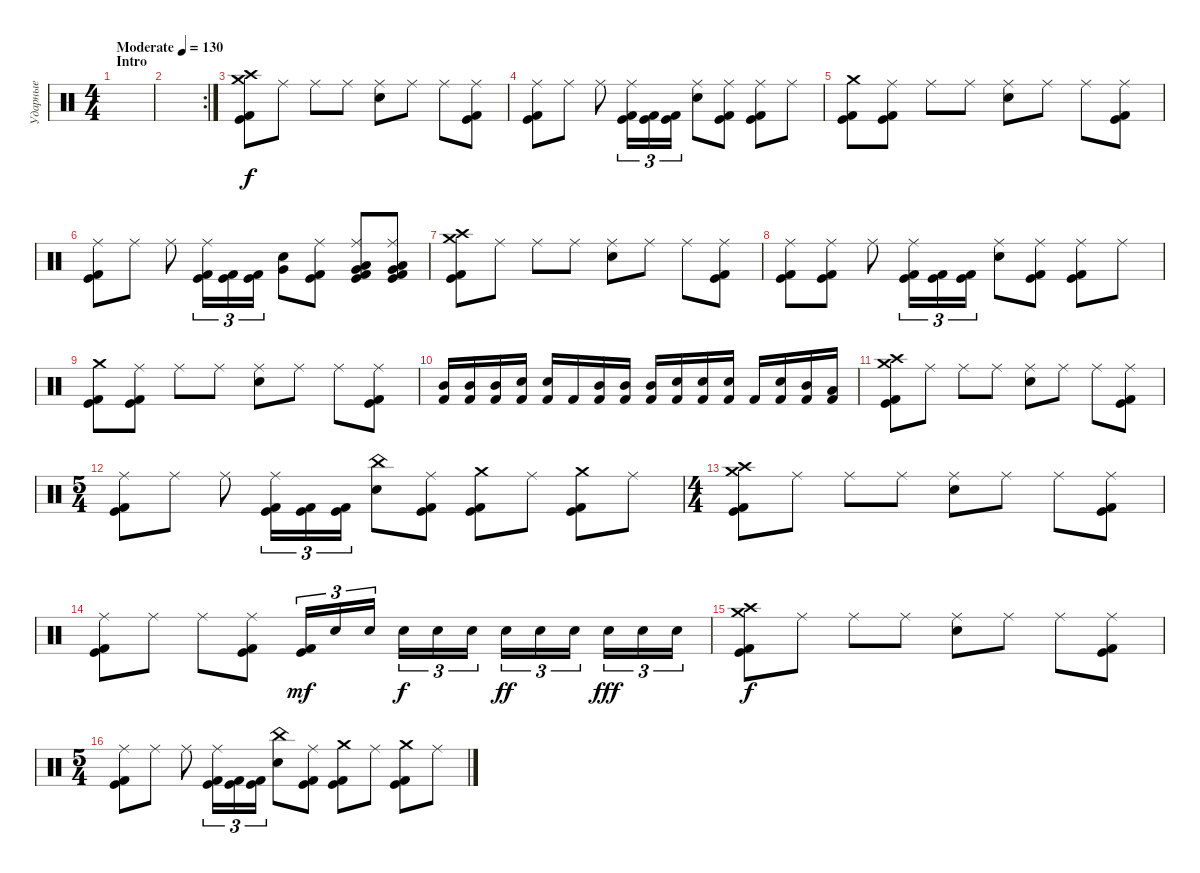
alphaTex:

\track ("Ударные" "Ударные") {instrument percussion}
\staff {score}
\articulation defaults
\ts (4 4)
\section ("" "Intro")
\tempo (130 "Moderate")
\clef neutral
\ks c
|
\rc 2
|
("Crash high (hit)" "Crash medium (hit)" "Kick (hit)" "Kick (hit) 2").8 "Ride (middle)".8 "Ride (middle)".8 "Ride (middle)".8 ("Ride (middle)" "Electric Snare (hit)").8 "Ride (middle)".8 "Ride (middle)".8 ("Ride (middle)" "Kick (hit)" "Kick (hit) 2").8 |
("Ride (middle)" "Kick (hit)" "Kick (hit) 2").8 "Ride (middle)".8 "Ride (middle)".8 ("Ride (middle)" "Kick (hit)" "Kick (hit) 2").16{tu (3 2)} ("Kick (hit)" "Kick (hit) 2").16{tu (3 2)} ("Kick (hit)" "Kick (hit) 2").16{tu (3 2)} ("Ride (middle)" "Electric Snare (hit)").8 ("Ride (middle)" "Kick (hit)" "Kick (hit) 2").8 ("Ride (middle)" "Kick (hit)" "Kick (hit) 2").8 "Ride (middle)".8 |
("Crash medium (hit)" "Kick (hit)" "Kick (hit) 2").8 ("Ride (middle)" "Kick (hit)" "Kick (hit) 2").8 "Ride (middle)".8 "Ride (middle)".8 ("Ride (middle)" "Electric Snare (hit)").8 "Ride (middle)".8 "Ride (middle)".8 ("Ride (middle)" "Kick (hit)" "Kick (hit) 2").8 |
("Ride (middle)" "Kick (hit)" "Kick (hit) 2").8 "Ride (middle)".8 "Ride (middle)".8 ("Ride (middle)" "Kick (hit)" "Kick (hit) 2").16{tu (3 2)} ("Kick (hit)" "Kick (hit) 2").16{tu (3 2)} ("Kick (hit)" "Kick (hit) 2").16{tu (3 2)} ("Very Low Tom (hit)" "Electric Snare (hit)").8 ("Ride (middle)" "Kick (hit)" "Kick (hit) 2").8 ("Ride (middle)" "Low Tom (hit)" "Very Low Tom (hit)" "Kick (hit)" "Kick (hit) 2").8 ("Ride (middle)" "Very Low Tom (hit)" "Low Floor Tom (hit)" "Kick (hit)" "Kick (hit) 2").8 |
("Crash high (hit)" "Crash medium (hit)" "Kick (hit)" "Kick (hit) 2").8 "Ride (middle)".8 "Ride (middle)".8 "Ride (middle)".8 ("Ride (middle)" "Electric Snare (hit)").8 "Ride (middle)".8 "Ride (middle)".8 ("Ride (middle)" "Kick (hit)" "Kick (hit) 2").8 |
("Ride (middle)" "Kick (hit)" "Kick (hit) 2").8 ("Ride (middle)" "Kick (hit)" "Kick (hit) 2").8 "Ride (middle)".8 ("Ride (middle)" "Kick (hit)" "Kick (hit) 2").16{tu (3 2)} ("Kick (hit)" "Kick (hit) 2").16{tu (3 2)} ("Kick (hit)" "Kick (hit) 2").16{tu (3 2)} ("Ride (middle)" "Electric Snare (hit)").8 ("Ride (middle)" "Kick (hit)" "Kick (hit) 2").8 ("Ride (middle)" "Kick (hit)" "Kick (hit) 2").8 "Ride (middle)".8 |
("Crash medium (hit)" "Kick (hit)" "Kick (hit) 2").8 ("Ride (middle)" "Kick (hit)" "Kick (hit) 2").8 "Ride (middle)".8 "Ride (middle)".8 ("Ride (middle)" "Electric Snare (hit)").8 "Ride (middle)".8 "Ride (middle)".8 ("Ride (middle)" "Kick (hit)" "Kick (hit) 2").8 |
("Mid Tom (hit)" "Kick (hit) 2").16 ("Mid Tom (hit)" "Kick (hit) 2").16 ("Mid Tom (hit)" "Kick (hit) 2").16 ("Electric Snare (hit)" "Kick (hit) 2").16 ("Electric Snare (hit)" "Kick (hit) 2").16 "Kick (hit) 2".16 ("Mid Tom (hit)" "Kick (hit) 2").16 ("Mid Tom (hit)" "Kick (hit) 2").16 ("Mid Tom (hit)" "Kick (hit) 2").16 ("Electric Snare (hit)" "Kick (hit) 2").16 ("Electric Snare (hit)" "Kick (hit) 2").16 ("Electric Snare (hit)" "Kick (hit) 2").16 "Kick (hit) 2".16 ("Electric Snare (hit)" "Kick (hit) 2").16 ("Mid Tom (hit)" "Kick (hit) 2").16 ("Low Tom (hit)" "Kick (hit) 2").16 |
("Crash high (hit)" "Crash medium (hit)" "Kick (hit)" "Kick (hit) 2").8 "Ride (middle)".8 "Ride (middle)".8 "Ride (middle)".8 ("Ride (middle)" "Electric Snare (hit)").8 "Ride (middle)".8 "Ride (middle)".8 ("Ride (middle)" "Kick (hit)" "Kick (hit) 2").8 |
\ts (5 4)
("Ride (middle)" "Kick (hit)" "Kick (hit) 2").8 "Ride (middle)".8 "Ride (middle)".8 ("Ride (middle)" "Kick (hit)" "Kick (hit) 2").16{tu (3 2)} ("Kick (hit)" "Kick (hit) 2").16{tu (3 2)} ("Kick (hit)" "Kick (hit) 2").16{tu (3 2)} ("China (hit)" "Electric Snare (hit)").8 ("Ride (middle)" "Kick (hit)" "Kick (hit) 2").8 ("Crash medium (hit)" "Kick (hit)" "Kick (hit) 2").8 "Ride (middle)".8 ("Crash medium (hit)" "Kick (hit)" "Kick (hit) 2").8 "Ride (middle)".8 |
\ts (4 4)
("Crash high (hit)" "Crash medium (hit)" "Kick (hit)" "Kick (hit) 2").8 "Ride (middle)".8 "Ride (middle)".8 "Ride (middle)".8 ("Ride (middle)" "Electric Snare (hit)").8 "Ride (middle)".8 "Ride (middle)".8 ("Ride (middle)" "Kick (hit)" "Kick (hit) 2").8 |
("Ride (middle)" "Kick (hit)" "Kick (hit) 2").8 "Ride (middle)".8 "Ride (middle)".8 ("Ride (middle)" "Kick (hit)" "Kick (hit) 2").8 ("Kick (hit)" "Kick (hit) 2").16{tu (3 2) dy mf} "Electric Snare (hit)".16{tu (3 2)} "Electric Snare (hit)".16{tu (3 2) beam splitsecondary} "Electric Snare (hit)".16{tu (3 2) dy f} "Electric Snare (hit)".16{tu (3 2)} "Electric Snare (hit)".16{tu (3 2)} "Electric Snare (hit)".16{tu (3 2) dy ff} "Electric Snare (hit)".16{tu (3 2)} "Electric Snare (hit)".16{tu (3 2) beam splitsecondary} "Electric Snare (hit)".16{tu (3 2) dy fff} "Electric Snare (hit)".16{tu (3 2)} "Electric Snare (hit)".16{tu (3 2)} |
("Crash high (hit)" "Crash medium (hit)" "Kick (hit)" "Kick (hit) 2").8{dy f} "Ride (middle)".8 "Ride (middle)".8 "Ride (middle)".8 ("Ride (middle)" "Electric Snare (hit)").8 "Ride (middle)".8 "Ride (middle)".8 ("Ride (middle)" "Kick (hit)" "Kick (hit) 2").8 |
\ts (5 4)
("Ride (middle)" "Kick (hit)" "Kick (hit) 2").8 "Ride (middle)".8 "Ride (middle)".8 ("Ride (middle)" "Kick (hit)" "Kick (hit) 2").16{tu (3 2)} ("Kick (hit)" "Kick (hit) 2").16{tu (3 2)} ("Kick (hit)" "Kick (hit) 2").16{tu (3 2)} ("China (hit)" "Electric Snare (hit)").8 ("Ride (middle)" "Kick (hit)" "Kick (hit) 2").8 ("Crash medium (hit)" "Kick (hit)" "Kick (hit) 2").8 "Ride (middle)".8 ("Crash medium (hit)" "Kick (hit)" "Kick (hit) 2").8 "Ride (middle)".8
